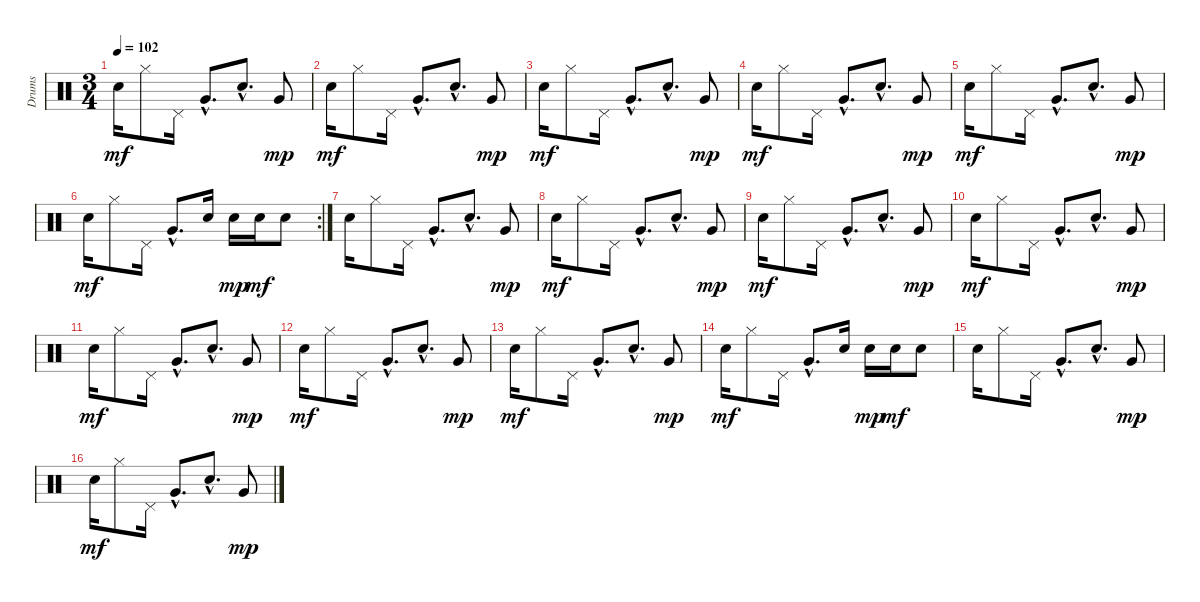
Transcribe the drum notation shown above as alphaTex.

\track ("Drums" "Drums") {instrument percussion}
\staff {score}
\articulation defaults
\ts (3 4)
\tempo 102
\clef neutral
\ks c "Electric Snare (hit)".16{dy mf} "Hi-Hat (closed)".8 "Pedal Hi-Hat (hit)".16 "Very Low Tom (hit)"{hac}.8{d} "Electric Snare (hit)"{hac}.8{d} "Very Low Tom (hit)".8{dy mp}
|
"Electric Snare (hit)".16{dy mf} "Hi-Hat (closed)".8 "Pedal Hi-Hat (hit)".16 "Very Low Tom (hit)"{hac}.8{d} "Electric Snare (hit)"{hac}.8{d} "Very Low Tom (hit)".8{dy mp} |
"Electric Snare (hit)".16{dy mf} "Hi-Hat (closed)".8 "Pedal Hi-Hat (hit)".16 "Very Low Tom (hit)"{hac}.8{d} "Electric Snare (hit)"{hac}.8{d} "Very Low Tom (hit)".8{dy mp} |
"Electric Snare (hit)".16{dy mf} "Hi-Hat (closed)".8 "Pedal Hi-Hat (hit)".16 "Very Low Tom (hit)"{hac}.8{d} "Electric Snare (hit)"{hac}.8{d} "Very Low Tom (hit)".8{dy mp} |
"Electric Snare (hit)".16{dy mf} "Hi-Hat (closed)".8 "Pedal Hi-Hat (hit)".16 "Very Low Tom (hit)"{hac}.8{d} "Electric Snare (hit)"{hac}.8{d} "Very Low Tom (hit)".8{dy mp} |
\rc 2 "Electric Snare (hit)".16{dy mf} "Hi-Hat (closed)".8 "Pedal Hi-Hat (hit)".16 "Very Low Tom (hit)"{hac}.8{d} "Electric Snare (hit)".16 "Electric Snare (hit)".16{dy mp} "Electric Snare (hit)".16{dy mf} "Electric Snare (hit)".8
|
"Electric Snare (hit)".16{volume 12} "Hi-Hat (closed)".8 "Pedal Hi-Hat (hit)".16 "Very Low Tom (hit)"{hac}.8{d} "Electric Snare (hit)"{hac}.8{d} "Very Low Tom (hit)".8{dy mp} |
"Electric Snare (hit)".16{dy mf} "Hi-Hat (closed)".8 "Pedal Hi-Hat (hit)".16 "Very Low Tom (hit)"{hac}.8{d} "Electric Snare (hit)"{hac}.8{d} "Very Low Tom (hit)".8{dy mp} |
"Electric Snare (hit)".16{dy mf} "Hi-Hat (closed)".8 "Pedal Hi-Hat (hit)".16 "Very Low Tom (hit)"{hac}.8{d} "Electric Snare (hit)"{hac}.8{d} "Very Low Tom (hit)".8{dy mp} |
"Electric Snare (hit)".16{dy mf} "Hi-Hat (closed)".8 "Pedal Hi-Hat (hit)".16 "Very Low Tom (hit)"{hac}.8{d} "Electric Snare (hit)"{hac}.8{d} "Very Low Tom (hit)".8{dy mp} |
"Electric Snare (hit)".16{dy mf} "Hi-Hat (closed)".8 "Pedal Hi-Hat (hit)".16 "Very Low Tom (hit)"{hac}.8{d} "Electric Snare (hit)"{hac}.8{d} "Very Low Tom (hit)".8{dy mp} |
"Electric Snare (hit)".16{dy mf} "Hi-Hat (closed)".8 "Pedal Hi-Hat (hit)".16 "Very Low Tom (hit)"{hac}.8{d} "Electric Snare (hit)"{hac}.8{d} "Very Low Tom (hit)".8{dy mp} |
"Electric Snare (hit)".16{dy mf} "Hi-Hat (closed)".8 "Pedal Hi-Hat (hit)".16 "Very Low Tom (hit)"{hac}.8{d} "Electric Snare (hit)"{hac}.8{d} "Very Low Tom (hit)".8{dy mp} |
"Electric Snare (hit)".16{dy mf} "Hi-Hat (closed)".8 "Pedal Hi-Hat (hit)".16 "Very Low Tom (hit)"{hac}.8{d} "Electric Snare (hit)".16 "Electric Snare (hit)".16{dy mp} "Electric Snare (hit)".16{dy mf} "Electric Snare (hit)".8 |
"Electric Snare (hit)".16{volume 8} "Hi-Hat (closed)".8 "Pedal Hi-Hat (hit)".16 "Very Low Tom (hit)"{hac}.8{d} "Electric Snare (hit)"{hac}.8{d} "Very Low Tom (hit)".8{dy mp} |
"Electric Snare (hit)".16{dy mf} "Hi-Hat (closed)".8 "Pedal Hi-Hat (hit)".16 "Very Low Tom (hit)"{hac}.8{d} "Electric Snare (hit)"{hac}.8{d} "Very Low Tom (hit)".8{dy mp}
